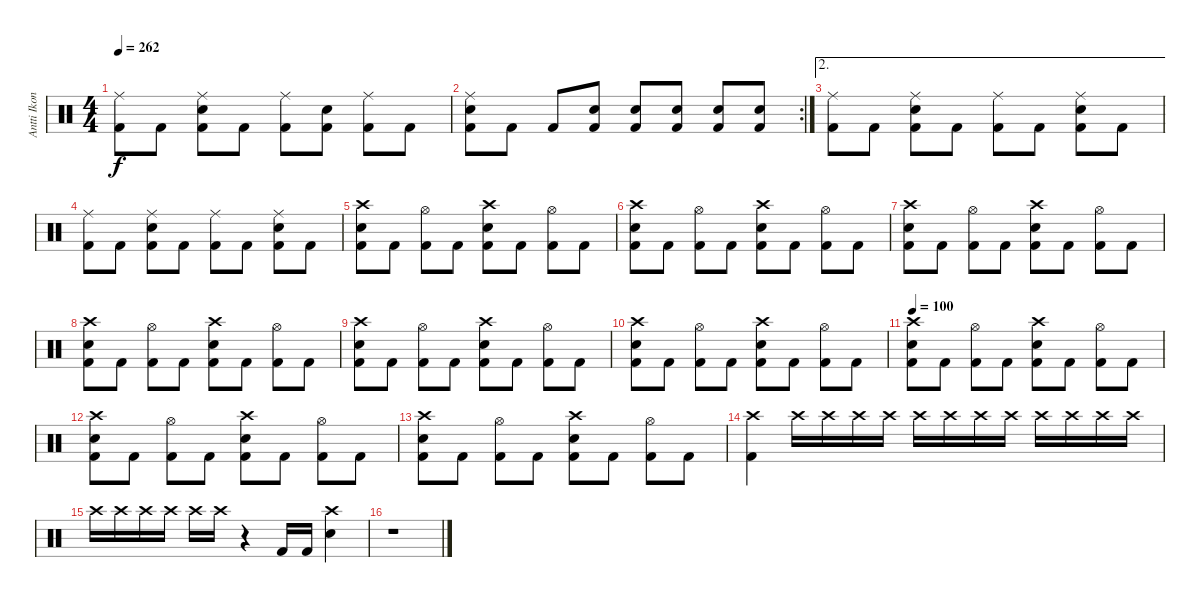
\track ("Antti Ikonen" "Antti Ikon") {instrument percussion}
\staff {score}
\articulation defaults
\ts (4 4)
\tempo 262
\clef neutral
\ks c
("Ride (middle)" "Kick (hit) 2").8{dy f} "Kick (hit) 2".8 ("Ride (middle)" "Electric Snare (hit)" "Kick (hit) 2").8 "Kick (hit) 2".8 ("Ride (middle)" "Kick (hit) 2").8 ("Electric Snare (hit)" "Kick (hit) 2").8 ("Ride (middle)" "Kick (hit) 2").8 "Kick (hit) 2".8 |
\rc 2
("Ride (middle)" "Electric Snare (hit)" "Kick (hit) 2").8 "Kick (hit) 2".8 "Kick (hit) 2".8 ("Electric Snare (hit)" "Kick (hit) 2").8 ("Electric Snare (hit)" "Kick (hit) 2").8 ("Electric Snare (hit)" "Kick (hit) 2").8 ("Electric Snare (hit)" "Kick (hit) 2").8 ("Electric Snare (hit)" "Kick (hit) 2").8 |
\ae 2
("Ride (middle)" "Kick (hit) 2").8 "Kick (hit) 2".8 ("Ride (middle)" "Electric Snare (hit)" "Kick (hit) 2").8 "Kick (hit) 2".8 ("Ride (middle)" "Kick (hit) 2").8 "Kick (hit) 2".8 ("Ride (middle)" "Electric Snare (hit)" "Kick (hit) 2").8 "Kick (hit) 2".8 |
("Ride (middle)" "Kick (hit) 2").8 "Kick (hit) 2".8 ("Ride (middle)" "Electric Snare (hit)" "Kick (hit) 2").8 "Kick (hit) 2".8 ("Ride (middle)" "Kick (hit) 2").8 "Kick (hit) 2".8 ("Ride (middle)" "Electric Snare (hit)" "Kick (hit) 2").8 "Kick (hit) 2".8 |
("Crash high (hit)" "Electric Snare (hit)" "Kick (hit) 2").8 "Kick (hit) 2".8 ("Hi-Hat (open)" "Kick (hit) 2").8 "Kick (hit) 2".8 ("Crash high (hit)" "Electric Snare (hit)" "Kick (hit) 2").8 "Kick (hit) 2".8 ("Hi-Hat (open)" "Kick (hit) 2").8 "Kick (hit) 2".8 |
("Crash high (hit)" "Electric Snare (hit)" "Kick (hit) 2").8 "Kick (hit) 2".8 ("Hi-Hat (open)" "Kick (hit) 2").8 "Kick (hit) 2".8 ("Crash high (hit)" "Electric Snare (hit)" "Kick (hit) 2").8 "Kick (hit) 2".8 ("Hi-Hat (open)" "Kick (hit) 2").8 "Kick (hit) 2".8 |
("Crash high (hit)" "Electric Snare (hit)" "Kick (hit) 2").8 "Kick (hit) 2".8 ("Hi-Hat (open)" "Kick (hit) 2").8 "Kick (hit) 2".8 ("Crash high (hit)" "Electric Snare (hit)" "Kick (hit) 2").8 "Kick (hit) 2".8 ("Hi-Hat (open)" "Kick (hit) 2").8 "Kick (hit) 2".8 |
("Crash high (hit)" "Electric Snare (hit)" "Kick (hit) 2").8 "Kick (hit) 2".8 ("Hi-Hat (open)" "Kick (hit) 2").8 "Kick (hit) 2".8 ("Crash high (hit)" "Electric Snare (hit)" "Kick (hit) 2").8 "Kick (hit) 2".8 ("Hi-Hat (open)" "Kick (hit) 2").8 "Kick (hit) 2".8 |
("Crash high (hit)" "Electric Snare (hit)" "Kick (hit) 2").8 "Kick (hit) 2".8 ("Hi-Hat (open)" "Kick (hit) 2").8 "Kick (hit) 2".8 ("Crash high (hit)" "Electric Snare (hit)" "Kick (hit) 2").8 "Kick (hit) 2".8 ("Hi-Hat (open)" "Kick (hit) 2").8 "Kick (hit) 2".8 |
("Crash high (hit)" "Electric Snare (hit)" "Kick (hit) 2").8 "Kick (hit) 2".8 ("Hi-Hat (open)" "Kick (hit) 2").8 "Kick (hit) 2".8 ("Crash high (hit)" "Electric Snare (hit)" "Kick (hit) 2").8 "Kick (hit) 2".8 ("Hi-Hat (open)" "Kick (hit) 2").8 "Kick (hit) 2".8 |
\tempo 100
("Crash high (hit)" "Electric Snare (hit)" "Kick (hit) 2").8 "Kick (hit) 2".8 ("Hi-Hat (open)" "Kick (hit) 2").8 "Kick (hit) 2".8 ("Crash high (hit)" "Electric Snare (hit)" "Kick (hit) 2").8 "Kick (hit) 2".8 ("Hi-Hat (open)" "Kick (hit) 2").8 "Kick (hit) 2".8 |
("Crash high (hit)" "Electric Snare (hit)" "Kick (hit) 2").8 "Kick (hit) 2".8 ("Hi-Hat (open)" "Kick (hit) 2").8 "Kick (hit) 2".8 ("Crash high (hit)" "Electric Snare (hit)" "Kick (hit) 2").8 "Kick (hit) 2".8 ("Hi-Hat (open)" "Kick (hit) 2").8 "Kick (hit) 2".8 |
("Crash high (hit)" "Electric Snare (hit)" "Kick (hit) 2").8 "Kick (hit) 2".8 ("Hi-Hat (open)" "Kick (hit) 2").8 "Kick (hit) 2".8 ("Crash high (hit)" "Electric Snare (hit)" "Kick (hit) 2").8 "Kick (hit) 2".8 ("Hi-Hat (open)" "Kick (hit) 2").8 "Kick (hit) 2".8 |
("Crash high (hit)" "Kick (hit) 2").4 "Crash high (hit)".16 "Crash high (hit)".16 "Crash high (hit)".16 "Crash high (hit)".16 "Crash high (hit)".16 "Crash high (hit)".16 "Crash high (hit)".16 "Crash high (hit)".16 "Crash high (hit)".16 "Crash high (hit)".16 "Crash high (hit)".16 "Crash high (hit)".16 |
"Crash high (hit)".16 "Crash high (hit)".16 "Crash high (hit)".16 "Crash high (hit)".16 "Crash high (hit)".16 "Crash high (hit)".16 r.4 "Kick (hit) 2".16 "Kick (hit) 2".16 ("Crash high (hit)" "Electric Snare (hit)").4 |
r.1
